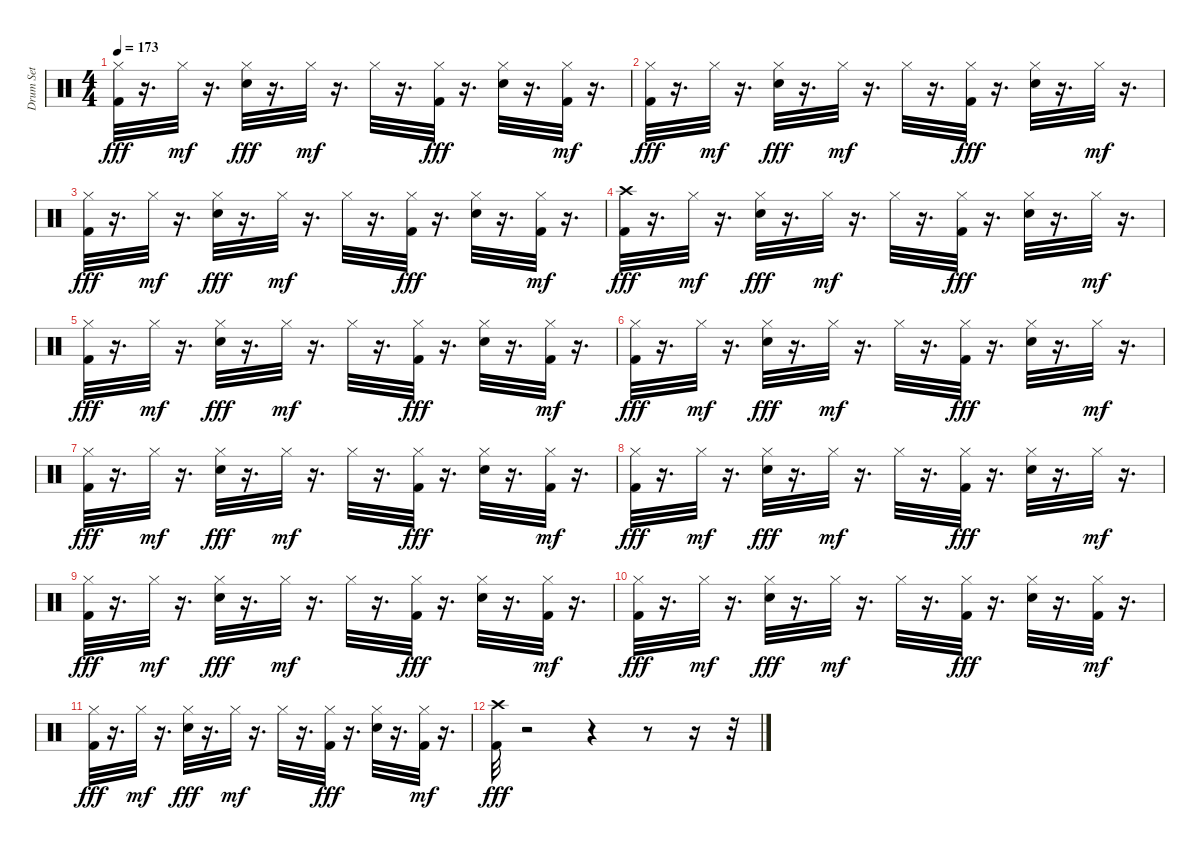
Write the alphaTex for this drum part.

\track ("Drum Set" "Drum Set") {instrument percussion}
\staff {score}
\articulation defaults
\ts (4 4)
\tempo 173
\clef neutral
\ks c
("Hi-Hat (closed)" "Kick (hit) 2").32{dy fff} r.16{d} "Hi-Hat (closed)".32{dy mf} r.16{d} ("Hi-Hat (closed)" "Electric Snare (hit)").32{dy fff} r.16{d} "Hi-Hat (closed)".32{dy mf} r.16{d} "Hi-Hat (closed)".32 r.16{d} ("Hi-Hat (closed)" "Kick (hit) 2").32{dy fff} r.16{d} ("Hi-Hat (closed)" "Electric Snare (hit)").32 r.16{d} ("Kick (hit) 2" "Hi-Hat (closed)").32{dy mf} r.16{d} |
("Hi-Hat (closed)" "Kick (hit) 2").32{dy fff} r.16{d} "Hi-Hat (closed)".32{dy mf} r.16{d} ("Hi-Hat (closed)" "Electric Snare (hit)").32{dy fff} r.16{d} "Hi-Hat (closed)".32{dy mf} r.16{d} "Hi-Hat (closed)".32 r.16{d} ("Hi-Hat (closed)" "Kick (hit) 2").32{dy fff} r.16{d} ("Hi-Hat (closed)" "Electric Snare (hit)").32 r.16{d} "Hi-Hat (closed)".32{dy mf} r.16{d} |
("Hi-Hat (closed)" "Kick (hit) 2").32{dy fff} r.16{d} "Hi-Hat (closed)".32{dy mf} r.16{d} ("Hi-Hat (closed)" "Electric Snare (hit)").32{dy fff} r.16{d} "Hi-Hat (closed)".32{dy mf} r.16{d} "Hi-Hat (closed)".32 r.16{d} ("Hi-Hat (closed)" "Kick (hit) 2").32{dy fff} r.16{d} ("Hi-Hat (closed)" "Electric Snare (hit)").32 r.16{d} ("Kick (hit) 2" "Hi-Hat (closed)").32{dy mf} r.16{d} |
("Crash high (hit)" "Kick (hit) 2").32{dy fff} r.16{d} "Hi-Hat (closed)".32{dy mf} r.16{d} ("Hi-Hat (closed)" "Electric Snare (hit)").32{dy fff} r.16{d} "Hi-Hat (closed)".32{dy mf} r.16{d} "Hi-Hat (closed)".32 r.16{d} ("Hi-Hat (closed)" "Kick (hit) 2").32{dy fff} r.16{d} ("Hi-Hat (closed)" "Electric Snare (hit)").32 r.16{d} "Hi-Hat (closed)".32{dy mf} r.16{d} |
("Hi-Hat (closed)" "Kick (hit) 2").32{dy fff} r.16{d} "Hi-Hat (closed)".32{dy mf} r.16{d} ("Hi-Hat (closed)" "Electric Snare (hit)").32{dy fff} r.16{d} "Hi-Hat (closed)".32{dy mf} r.16{d} "Hi-Hat (closed)".32 r.16{d} ("Hi-Hat (closed)" "Kick (hit) 2").32{dy fff} r.16{d} ("Hi-Hat (closed)" "Electric Snare (hit)").32 r.16{d} ("Kick (hit) 2" "Hi-Hat (closed)").32{dy mf} r.16{d} |
("Hi-Hat (closed)" "Kick (hit) 2").32{dy fff} r.16{d} "Hi-Hat (closed)".32{dy mf} r.16{d} ("Hi-Hat (closed)" "Electric Snare (hit)").32{dy fff} r.16{d} "Hi-Hat (closed)".32{dy mf} r.16{d} "Hi-Hat (closed)".32 r.16{d} ("Hi-Hat (closed)" "Kick (hit) 2").32{dy fff} r.16{d} ("Hi-Hat (closed)" "Electric Snare (hit)").32 r.16{d} "Hi-Hat (closed)".32{dy mf} r.16{d} |
("Hi-Hat (closed)" "Kick (hit) 2").32{dy fff} r.16{d} "Hi-Hat (closed)".32{dy mf} r.16{d} ("Hi-Hat (closed)" "Electric Snare (hit)").32{dy fff} r.16{d} "Hi-Hat (closed)".32{dy mf} r.16{d} "Hi-Hat (closed)".32 r.16{d} ("Hi-Hat (closed)" "Kick (hit) 2").32{dy fff} r.16{d} ("Hi-Hat (closed)" "Electric Snare (hit)").32 r.16{d} ("Kick (hit) 2" "Hi-Hat (closed)").32{dy mf} r.16{d} |
("Hi-Hat (closed)" "Kick (hit) 2").32{dy fff} r.16{d} "Hi-Hat (closed)".32{dy mf} r.16{d} ("Hi-Hat (closed)" "Electric Snare (hit)").32{dy fff} r.16{d} "Hi-Hat (closed)".32{dy mf} r.16{d} "Hi-Hat (closed)".32 r.16{d} ("Hi-Hat (closed)" "Kick (hit) 2").32{dy fff} r.16{d} ("Hi-Hat (closed)" "Electric Snare (hit)").32 r.16{d} "Hi-Hat (closed)".32{dy mf} r.16{d} |
("Hi-Hat (closed)" "Kick (hit) 2").32{dy fff} r.16{d} "Hi-Hat (closed)".32{dy mf} r.16{d} ("Hi-Hat (closed)" "Electric Snare (hit)").32{dy fff} r.16{d} "Hi-Hat (closed)".32{dy mf} r.16{d} "Hi-Hat (closed)".32 r.16{d} ("Hi-Hat (closed)" "Kick (hit) 2").32{dy fff} r.16{d} ("Hi-Hat (closed)" "Electric Snare (hit)").32 r.16{d} ("Kick (hit) 2" "Hi-Hat (closed)").32{dy mf} r.16{d} |
("Hi-Hat (closed)" "Kick (hit) 2").32{dy fff} r.16{d} "Hi-Hat (closed)".32{dy mf} r.16{d} ("Hi-Hat (closed)" "Electric Snare (hit)").32{dy fff} r.16{d} "Hi-Hat (closed)".32{dy mf} r.16{d} "Hi-Hat (closed)".32 r.16{d} ("Hi-Hat (closed)" "Kick (hit) 2").32{dy fff} r.16{d} ("Hi-Hat (closed)" "Electric Snare (hit)").32 r.16{d} ("Kick (hit) 2" "Hi-Hat (closed)").32{dy mf} r.16{d} |
("Hi-Hat (closed)" "Kick (hit) 2").32{dy fff} r.16{d} "Hi-Hat (closed)".32{dy mf} r.16{d} ("Hi-Hat (closed)" "Electric Snare (hit)").32{dy fff} r.16{d} "Hi-Hat (closed)".32{dy mf} r.16{d} "Hi-Hat (closed)".32 r.16{d} ("Hi-Hat (closed)" "Kick (hit) 2").32{dy fff} r.16{d} ("Hi-Hat (closed)" "Electric Snare (hit)").32 r.16{d} ("Kick (hit) 2" "Hi-Hat (closed)").32{dy mf} r.16{d} |
("Crash high (hit)" "Kick (hit) 2").32{dy fff} r.2 r.4 r.8 r.16 r.32
